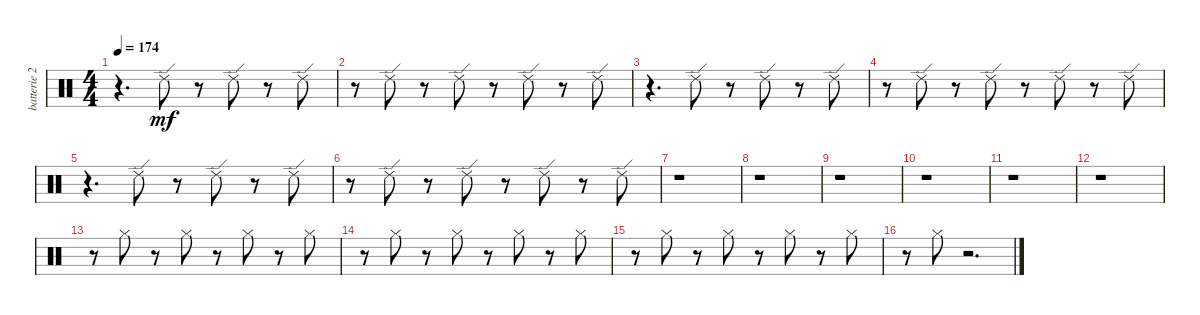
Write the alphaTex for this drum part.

\track ("batterie 2" "batterie 2") {instrument percussion}
\staff {score}
\articulation defaults
\ts (4 4)
\tempo 174
\clef neutral
\ks c
r.4{d dy mf} "Ride (edge) 2".8 r.8 "Ride (edge) 2".8 r.8 "Ride (edge) 2".8 |
r.8 "Ride (edge) 2".8 r.8 "Ride (edge) 2".8 r.8 "Ride (edge) 2".8 r.8 "Ride (edge) 2".8 |
r.4{d} "Ride (edge) 2".8 r.8 "Ride (edge) 2".8 r.8 "Ride (edge) 2".8 |
r.8 "Ride (edge) 2".8 r.8 "Ride (edge) 2".8 r.8 "Ride (edge) 2".8 r.8 "Ride (edge) 2".8 |
r.4{d} "Ride (edge) 2".8 r.8 "Ride (edge) 2".8 r.8 "Ride (edge) 2".8 |
r.8 "Ride (edge) 2".8 r.8 "Ride (edge) 2".8 r.8 "Ride (edge) 2".8 r.8 "Ride (edge) 2".8 |
r.1 |
r.1 |
r.1 |
r.1 |
r.1 |
r.1 |
r.8 "Hi-Hat (closed)".8 r.8 "Hi-Hat (closed)".8 r.8 "Hi-Hat (closed)".8 r.8 "Hi-Hat (closed)".8 |
r.8 "Hi-Hat (closed)".8 r.8 "Hi-Hat (closed)".8 r.8 "Hi-Hat (closed)".8 r.8 "Hi-Hat (closed)".8 |
r.8 "Hi-Hat (closed)".8 r.8 "Hi-Hat (closed)".8 r.8 "Hi-Hat (closed)".8 r.8 "Hi-Hat (closed)".8 |
r.8 "Hi-Hat (closed)".8 r.2{d}
